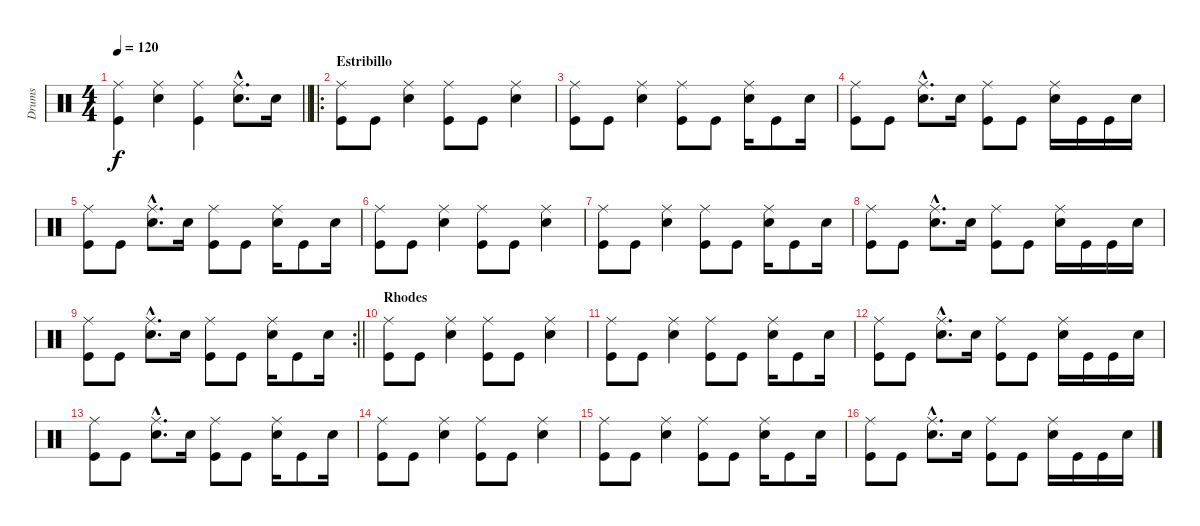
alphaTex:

\track ("Drums" "Drums") {instrument percussion}
\staff {score}
\articulation defaults
\ts (4 4)
\tempo 120
\clef neutral
\barLineRight lightlight
\ks c
("Ride (middle)" "Kick (hit)").4{dy f} ("Ride (middle)" "Electric Snare (hit)").4 ("Ride (middle)" "Kick (hit)").4 ("Ride (middle)"{hac} "Electric Snare (hit)"{hac}).8{d} "Electric Snare (hit)".16 |
\ro
\section ("" "Estribillo")
("Ride (middle)" "Kick (hit)").8 "Kick (hit)".8 ("Ride (middle)" "Electric Snare (hit)").4 ("Ride (middle)" "Kick (hit)").8 "Kick (hit)".8 ("Ride (middle)" "Electric Snare (hit)").4 |
("Ride (middle)" "Kick (hit)").8 "Kick (hit)".8 ("Ride (middle)" "Electric Snare (hit)").4 ("Ride (middle)" "Kick (hit)").8 "Kick (hit)".8 ("Ride (middle)" "Electric Snare (hit)").16 "Kick (hit)".8 "Electric Snare (hit)".16 |
("Ride (middle)" "Kick (hit)").8 "Kick (hit)".8 ("Ride (middle)"{hac} "Electric Snare (hit)"{hac}).8{d} "Electric Snare (hit)".16 ("Ride (middle)" "Kick (hit)").8 "Kick (hit)".8 ("Ride (middle)" "Electric Snare (hit)").16 "Kick (hit)".16 "Kick (hit)".16 "Electric Snare (hit)".16 |
("Ride (middle)" "Kick (hit)").8 "Kick (hit)".8 ("Ride (middle)"{hac} "Electric Snare (hit)"{hac}).8{d} "Electric Snare (hit)".16 ("Ride (middle)" "Kick (hit)").8 "Kick (hit)".8 ("Ride (middle)" "Electric Snare (hit)").16 "Kick (hit)".8 "Electric Snare (hit)".16 |
("Ride (middle)" "Kick (hit)").8 "Kick (hit)".8 ("Ride (middle)" "Electric Snare (hit)").4 ("Ride (middle)" "Kick (hit)").8 "Kick (hit)".8 ("Ride (middle)" "Electric Snare (hit)").4 |
("Ride (middle)" "Kick (hit)").8 "Kick (hit)".8 ("Ride (middle)" "Electric Snare (hit)").4 ("Ride (middle)" "Kick (hit)").8 "Kick (hit)".8 ("Ride (middle)" "Electric Snare (hit)").16 "Kick (hit)".8 "Electric Snare (hit)".16 |
("Ride (middle)" "Kick (hit)").8 "Kick (hit)".8 ("Ride (middle)"{hac} "Electric Snare (hit)"{hac}).8{d} "Electric Snare (hit)".16 ("Ride (middle)" "Kick (hit)").8 "Kick (hit)".8 ("Ride (middle)" "Electric Snare (hit)").16 "Kick (hit)".16 "Kick (hit)".16 "Electric Snare (hit)".16 |
\rc 2
\barLineRight lightlight
("Ride (middle)" "Kick (hit)").8 "Kick (hit)".8 ("Ride (middle)"{hac} "Electric Snare (hit)"{hac}).8{d} "Electric Snare (hit)".16 ("Ride (middle)" "Kick (hit)").8 "Kick (hit)".8 ("Ride (middle)" "Electric Snare (hit)").16 "Kick (hit)".8 "Electric Snare (hit)".16 |
\section ("" "Rhodes")
("Ride (middle)" "Kick (hit)").8 "Kick (hit)".8 ("Ride (middle)" "Electric Snare (hit)").4 ("Ride (middle)" "Kick (hit)").8 "Kick (hit)".8 ("Ride (middle)" "Electric Snare (hit)").4 |
("Ride (middle)" "Kick (hit)").8 "Kick (hit)".8 ("Ride (middle)" "Electric Snare (hit)").4 ("Ride (middle)" "Kick (hit)").8 "Kick (hit)".8 ("Ride (middle)" "Electric Snare (hit)").16 "Kick (hit)".8 "Electric Snare (hit)".16 |
("Ride (middle)" "Kick (hit)").8 "Kick (hit)".8 ("Ride (middle)"{hac} "Electric Snare (hit)"{hac}).8{d} "Electric Snare (hit)".16 ("Ride (middle)" "Kick (hit)").8 "Kick (hit)".8 ("Ride (middle)" "Electric Snare (hit)").16 "Kick (hit)".16 "Kick (hit)".16 "Electric Snare (hit)".16 |
("Ride (middle)" "Kick (hit)").8 "Kick (hit)".8 ("Ride (middle)"{hac} "Electric Snare (hit)"{hac}).8{d} "Electric Snare (hit)".16 ("Ride (middle)" "Kick (hit)").8 "Kick (hit)".8 ("Ride (middle)" "Electric Snare (hit)").16 "Kick (hit)".8 "Electric Snare (hit)".16 |
("Ride (middle)" "Kick (hit)").8 "Kick (hit)".8 ("Ride (middle)" "Electric Snare (hit)").4 ("Ride (middle)" "Kick (hit)").8 "Kick (hit)".8 ("Ride (middle)" "Electric Snare (hit)").4 |
("Ride (middle)" "Kick (hit)").8 "Kick (hit)".8 ("Ride (middle)" "Electric Snare (hit)").4 ("Ride (middle)" "Kick (hit)").8 "Kick (hit)".8 ("Ride (middle)" "Electric Snare (hit)").16 "Kick (hit)".8 "Electric Snare (hit)".16 |
("Ride (middle)" "Kick (hit)").8 "Kick (hit)".8 ("Ride (middle)"{hac} "Electric Snare (hit)"{hac}).8{d} "Electric Snare (hit)".16 ("Ride (middle)" "Kick (hit)").8 "Kick (hit)".8 ("Ride (middle)" "Electric Snare (hit)").16 "Kick (hit)".16 "Kick (hit)".16 "Electric Snare (hit)".16
